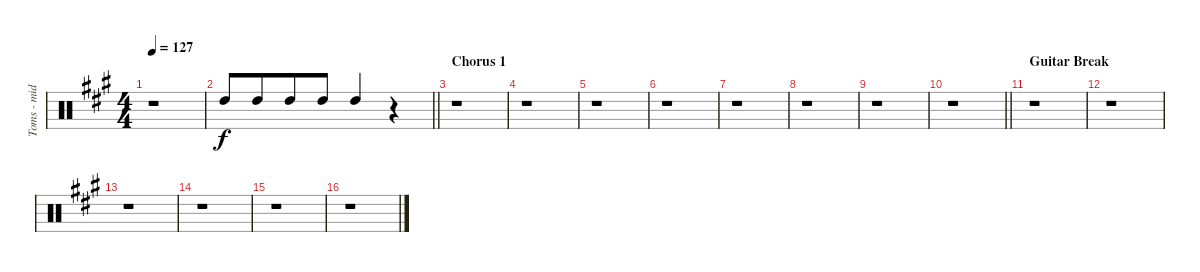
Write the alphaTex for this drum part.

\track ("Toms - middle" "Toms - mid") {instrument percussion}
\staff {score}
\articulation defaults
\ts (4 4)
\tempo 127
\clef neutral
\ks a
r.1{dy f} |
\barLineRight lightlight "High Tom (hit)".8{beam Up} "High Tom (hit)".8{beam Up beam merge} "High Tom (hit)".8{beam Up} "High Tom (hit)".8{beam Up} "High Tom (hit)".4{beam Up}
r.4 |
\section ("" "Chorus 1")
r.1 |
r.1 |
r.1 |
r.1 |
r.1 |
r.1 |
r.1 |
\barLineRight lightlight
r.1 |
\section ("" "Guitar Break")
r.1 |
r.1 |
r.1 |
r.1 |
r.1 |
r.1
